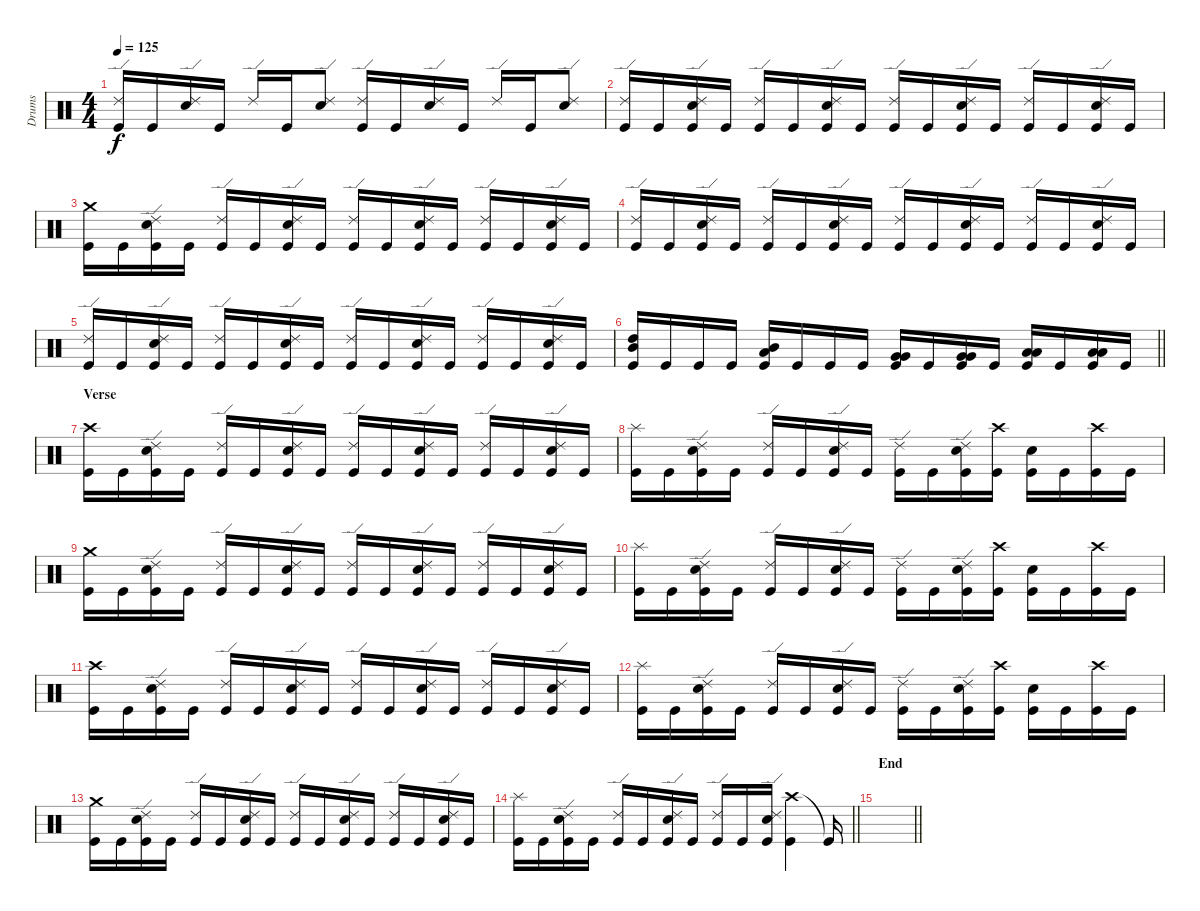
\track ("Drums" "Drums") {instrument percussion}
\staff {score}
\articulation defaults
\ts (4 4)
\tempo 125
\clef neutral
\ks c
("Ride (edge) 2" "Kick (hit)").16{dy f} "Kick (hit)".16 ("Ride (edge) 2" "Snare (hit) 2").16 "Kick (hit)".16 "Ride (edge) 2".16 "Kick (hit)".16 ("Ride (edge) 2" "Snare (hit) 2").8 ("Ride (edge) 2" "Kick (hit)").16 "Kick (hit)".16 ("Ride (edge) 2" "Snare (hit) 2").16 "Kick (hit)".16 "Ride (edge) 2".16 "Kick (hit)".16 ("Ride (edge) 2" "Snare (hit) 2").8 |
("Ride (edge) 2" "Kick (hit)").16 "Kick (hit)".16 ("Ride (edge) 2" "Snare (hit) 2" "Kick (hit)").16 "Kick (hit)".16 ("Ride (edge) 2" "Kick (hit)").16 "Kick (hit)".16 ("Ride (edge) 2" "Snare (hit) 2" "Kick (hit)").16 "Kick (hit)".16 ("Ride (edge) 2" "Kick (hit)").16 "Kick (hit)".16 ("Ride (edge) 2" "Snare (hit) 2" "Kick (hit)").16 "Kick (hit)".16 ("Ride (edge) 2" "Kick (hit)").16 "Kick (hit)".16 ("Ride (edge) 2" "Snare (hit) 2" "Kick (hit)").16 "Kick (hit)".16 |
("Crash medium (hit)" "Kick (hit)").16 "Kick (hit)".16 ("Ride (edge) 2" "Snare (hit) 2" "Kick (hit)").16 "Kick (hit)".16 ("Ride (edge) 2" "Kick (hit)").16 "Kick (hit)".16 ("Ride (edge) 2" "Snare (hit) 2" "Kick (hit)").16 "Kick (hit)".16 ("Ride (edge) 2" "Kick (hit)").16 "Kick (hit)".16 ("Ride (edge) 2" "Snare (hit) 2" "Kick (hit)").16 "Kick (hit)".16 ("Ride (edge) 2" "Kick (hit)").16 "Kick (hit)".16 ("Ride (edge) 2" "Snare (hit) 2" "Kick (hit)").16 "Kick (hit)".16 |
("Ride (edge) 2" "Kick (hit)").16 "Kick (hit)".16 ("Ride (edge) 2" "Snare (hit) 2" "Kick (hit)").16 "Kick (hit)".16 ("Ride (edge) 2" "Kick (hit)").16 "Kick (hit)".16 ("Ride (edge) 2" "Snare (hit) 2" "Kick (hit)").16 "Kick (hit)".16 ("Ride (edge) 2" "Kick (hit)").16 "Kick (hit)".16 ("Ride (edge) 2" "Snare (hit) 2" "Kick (hit)").16 "Kick (hit)".16 ("Ride (edge) 2" "Kick (hit)").16 "Kick (hit)".16 ("Ride (edge) 2" "Snare (hit) 2" "Kick (hit)").16 "Kick (hit)".16 |
("Ride (edge) 2" "Kick (hit)").16 "Kick (hit)".16 ("Ride (edge) 2" "Snare (hit) 2" "Kick (hit)").16 "Kick (hit)".16 ("Ride (edge) 2" "Kick (hit)").16 "Kick (hit)".16 ("Ride (edge) 2" "Snare (hit) 2" "Kick (hit)").16 "Kick (hit)".16 ("Ride (edge) 2" "Kick (hit)").16 "Kick (hit)".16 ("Ride (edge) 2" "Snare (hit) 2" "Kick (hit)").16 "Kick (hit)".16 ("Ride (edge) 2" "Kick (hit)").16 "Kick (hit)".16 ("Ride (edge) 2" "Snare (hit) 2" "Kick (hit)").16 "Kick (hit)".16 |
\barLineRight lightlight
("High Tom (hit)" "Mid Tom (hit)" "Kick (hit)").16 "Kick (hit)".16 "Kick (hit)".16 "Kick (hit)".16 ("Mid Tom (hit)" "Low Tom (hit)" "Kick (hit)").16 "Kick (hit)".16 "Kick (hit)".16 "Kick (hit)".16 ("Very Low Tom (hit)" "Very Low Tom (hit)" "Kick (hit)").16 "Kick (hit)".16 ("Very Low Tom (hit)" "Very Low Tom (hit)" "Kick (hit)").16 "Kick (hit)".16 ("Low Floor Tom (hit)" "Low Floor Tom (hit)" "Kick (hit)").16 "Kick (hit)".16 ("Low Floor Tom (hit)" "Low Floor Tom (hit)" "Kick (hit)").16 "Kick (hit)".16 |
\section ("" "Verse")
("Crash high (hit)" "Kick (hit)").16 "Kick (hit)".16 ("Ride (edge) 2" "Snare (hit) 2" "Kick (hit)").16 "Kick (hit)".16 ("Ride (edge) 2" "Kick (hit)").16 "Kick (hit)".16 ("Ride (edge) 2" "Snare (hit) 2" "Kick (hit)").16 "Kick (hit)".16 ("Ride (edge) 2" "Kick (hit)").16 "Kick (hit)".16 ("Ride (edge) 2" "Snare (hit) 2" "Kick (hit)").16 "Kick (hit)".16 ("Ride (edge) 2" "Kick (hit)").16 "Kick (hit)".16 ("Ride (edge) 2" "Snare (hit) 2" "Kick (hit)").16 "Kick (hit)".16 |
("Splash (hit)" "Kick (hit)").16 "Kick (hit)".16 ("Ride (edge) 2" "Snare (hit) 2" "Kick (hit)").16 "Kick (hit)".16 ("Ride (edge) 2" "Kick (hit)").16 "Kick (hit)".16 ("Ride (edge) 2" "Snare (hit) 2" "Kick (hit)").16 "Kick (hit)".16 ("Ride (edge) 2" "Kick (hit)").16 "Kick (hit)".16 ("Ride (edge) 2" "Snare (hit) 2" "Kick (hit)").16 ("Crash high (hit)" "Kick (hit)").16 ("Snare (hit) 2" "Kick (hit)").16 "Kick (hit)".16 ("Crash high (hit)" "Kick (hit)").16 "Kick (hit)".16 |
("Crash medium (hit)" "Kick (hit)").16 "Kick (hit)".16 ("Ride (edge) 2" "Snare (hit) 2" "Kick (hit)").16 "Kick (hit)".16 ("Ride (edge) 2" "Kick (hit)").16 "Kick (hit)".16 ("Ride (edge) 2" "Snare (hit) 2" "Kick (hit)").16 "Kick (hit)".16 ("Ride (edge) 2" "Kick (hit)").16 "Kick (hit)".16 ("Ride (edge) 2" "Snare (hit) 2" "Kick (hit)").16 "Kick (hit)".16 ("Ride (edge) 2" "Kick (hit)").16 "Kick (hit)".16 ("Ride (edge) 2" "Snare (hit) 2" "Kick (hit)").16 "Kick (hit)".16 |
("Splash (hit)" "Kick (hit)").16 "Kick (hit)".16 ("Ride (edge) 2" "Snare (hit) 2" "Kick (hit)").16 "Kick (hit)".16 ("Ride (edge) 2" "Kick (hit)").16 "Kick (hit)".16 ("Ride (edge) 2" "Snare (hit) 2" "Kick (hit)").16 "Kick (hit)".16 ("Ride (edge) 2" "Kick (hit)").16 "Kick (hit)".16 ("Ride (edge) 2" "Snare (hit) 2" "Kick (hit)").16 ("Crash high (hit)" "Kick (hit)").16 ("Snare (hit) 2" "Kick (hit)").16 "Kick (hit)".16 ("Crash high (hit)" "Kick (hit)").16 "Kick (hit)".16 |
("Crash high (hit)" "Kick (hit)").16 "Kick (hit)".16 ("Ride (edge) 2" "Snare (hit) 2" "Kick (hit)").16 "Kick (hit)".16 ("Ride (edge) 2" "Kick (hit)").16 "Kick (hit)".16 ("Ride (edge) 2" "Snare (hit) 2" "Kick (hit)").16 "Kick (hit)".16 ("Ride (edge) 2" "Kick (hit)").16 "Kick (hit)".16 ("Ride (edge) 2" "Snare (hit) 2" "Kick (hit)").16 "Kick (hit)".16 ("Ride (edge) 2" "Kick (hit)").16 "Kick (hit)".16 ("Ride (edge) 2" "Snare (hit) 2" "Kick (hit)").16 "Kick (hit)".16 |
("Splash (hit)" "Kick (hit)").16 "Kick (hit)".16 ("Ride (edge) 2" "Snare (hit) 2" "Kick (hit)").16 "Kick (hit)".16 ("Ride (edge) 2" "Kick (hit)").16 "Kick (hit)".16 ("Ride (edge) 2" "Snare (hit) 2" "Kick (hit)").16 "Kick (hit)".16 ("Ride (edge) 2" "Kick (hit)").16 "Kick (hit)".16 ("Ride (edge) 2" "Snare (hit) 2" "Kick (hit)").16 ("Crash high (hit)" "Kick (hit)").16 ("Snare (hit) 2" "Kick (hit)").16 "Kick (hit)".16 ("Crash high (hit)" "Kick (hit)").16 "Kick (hit)".16 |
("Crash medium (hit)" "Kick (hit)").16 "Kick (hit)".16 ("Ride (edge) 2" "Snare (hit) 2" "Kick (hit)").16 "Kick (hit)".16 ("Ride (edge) 2" "Kick (hit)").16 "Kick (hit)".16 ("Ride (edge) 2" "Snare (hit) 2" "Kick (hit)").16 "Kick (hit)".16 ("Ride (edge) 2" "Kick (hit)").16 "Kick (hit)".16 ("Ride (edge) 2" "Snare (hit) 2" "Kick (hit)").16 "Kick (hit)".16 ("Ride (edge) 2" "Kick (hit)").16 "Kick (hit)".16 ("Ride (edge) 2" "Snare (hit) 2" "Kick (hit)").16 "Kick (hit)".16 |
\barLineRight lightlight
("Splash (hit)" "Kick (hit)").16 "Kick (hit)".16 ("Ride (edge) 2" "Snare (hit) 2" "Kick (hit)").16 "Kick (hit)".16 ("Ride (edge) 2" "Kick (hit)").16 "Kick (hit)".16 ("Ride (edge) 2" "Snare (hit) 2" "Kick (hit)").16 "Kick (hit)".16 ("Ride (edge) 2" "Kick (hit)").16 "Kick (hit)".16 ("Ride (edge) 2" "Snare (hit) 2" "Kick (hit)").16 ("Crash high (hit)" "Kick (hit)").4 "Kick (hit)"{t}.16 |
\section ("" "End")
\barLineRight lightlight
